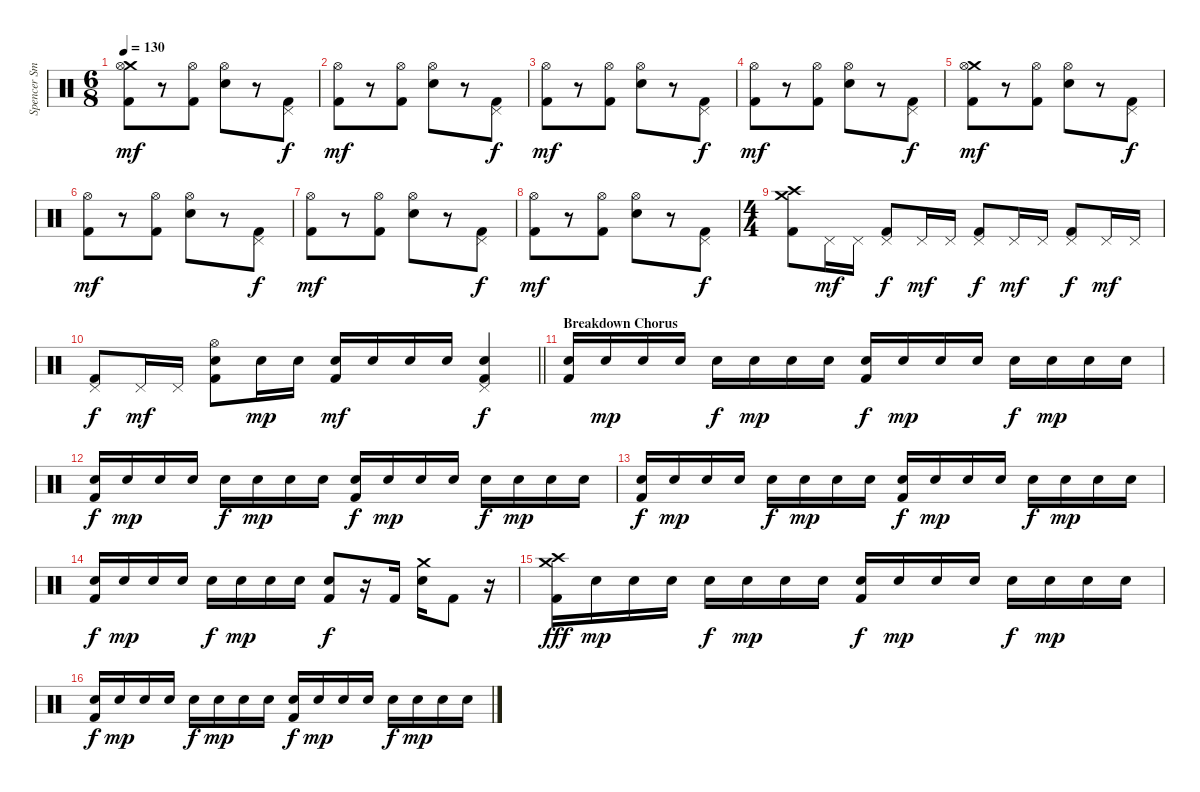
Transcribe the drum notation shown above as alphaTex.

\track ("Spencer Smith (Drums)" "Spencer Sm") {instrument percussion}
\staff {score}
\articulation defaults
\ts (6 8)
\tempo 130
\clef neutral
\ks c
("Crash medium (hit)" "Hi-Hat (open)" "Kick (hit) 2").8{dy mf} r.8 ("Hi-Hat (open)" "Kick (hit) 2").8 ("Hi-Hat (open)" "Electric Snare (hit)").8 r.8 ("Pedal Hi-Hat (hit)" "Kick (hit) 2").8{dy f} |
("Hi-Hat (open)" "Kick (hit) 2").8{dy mf} r.8 ("Hi-Hat (open)" "Kick (hit) 2").8 ("Hi-Hat (open)" "Electric Snare (hit)").8 r.8 ("Pedal Hi-Hat (hit)" "Kick (hit) 2").8{dy f} |
("Hi-Hat (open)" "Kick (hit) 2").8{dy mf} r.8 ("Hi-Hat (open)" "Kick (hit) 2").8 ("Hi-Hat (open)" "Electric Snare (hit)").8 r.8 ("Pedal Hi-Hat (hit)" "Kick (hit) 2").8{dy f} |
("Hi-Hat (open)" "Kick (hit) 2").8{dy mf} r.8 ("Hi-Hat (open)" "Kick (hit) 2").8 ("Hi-Hat (open)" "Electric Snare (hit)").8 r.8 ("Pedal Hi-Hat (hit)" "Kick (hit) 2").8{dy f} |
("Crash medium (hit)" "Hi-Hat (open)" "Kick (hit) 2").8{dy mf} r.8 ("Hi-Hat (open)" "Kick (hit) 2").8 ("Hi-Hat (open)" "Electric Snare (hit)").8 r.8 ("Pedal Hi-Hat (hit)" "Kick (hit) 2").8{dy f} |
("Hi-Hat (open)" "Kick (hit) 2").8{dy mf} r.8 ("Hi-Hat (open)" "Kick (hit) 2").8 ("Hi-Hat (open)" "Electric Snare (hit)").8 r.8 ("Pedal Hi-Hat (hit)" "Kick (hit) 2").8{dy f} |
("Hi-Hat (open)" "Kick (hit) 2").8{dy mf} r.8 ("Hi-Hat (open)" "Kick (hit) 2").8 ("Hi-Hat (open)" "Electric Snare (hit)").8 r.8 ("Pedal Hi-Hat (hit)" "Kick (hit) 2").8{dy f} |
("Hi-Hat (open)" "Kick (hit) 2").8{dy mf} r.8 ("Hi-Hat (open)" "Kick (hit) 2").8 ("Hi-Hat (open)" "Electric Snare (hit)").8 r.8 ("Pedal Hi-Hat (hit)" "Kick (hit) 2").8{dy f} |
\ts (4 4)
("Crash high (hit)" "Crash medium (hit)" "Kick (hit) 2").8 "Pedal Hi-Hat (hit)".16{dy mf} "Pedal Hi-Hat (hit)".16 ("Pedal Hi-Hat (hit)" "Kick (hit) 2").8{dy f} "Pedal Hi-Hat (hit)".16{dy mf} "Pedal Hi-Hat (hit)".16 ("Pedal Hi-Hat (hit)" "Kick (hit) 2").8{dy f} "Pedal Hi-Hat (hit)".16{dy mf} "Pedal Hi-Hat (hit)".16 ("Pedal Hi-Hat (hit)" "Kick (hit) 2").8{dy f} "Pedal Hi-Hat (hit)".16{dy mf} "Pedal Hi-Hat (hit)".16 |
\barLineRight lightlight
("Pedal Hi-Hat (hit)" "Kick (hit) 2").8{dy f} "Pedal Hi-Hat (hit)".16{dy mf} "Pedal Hi-Hat (hit)".16 ("Hi-Hat (open)" "Electric Snare (hit)" "Kick (hit) 2").8 "Electric Snare (hit)".16{dy mp} "Electric Snare (hit)".16 ("Electric Snare (hit)" "Kick (hit) 2").16{dy mf} "Electric Snare (hit)".16 "Electric Snare (hit)".16 "Electric Snare (hit)".16 ("Pedal Hi-Hat (hit)" "Electric Snare (hit)" "Kick (hit) 2").4{dy f} |
\section ("" "Breakdown Chorus")
("Electric Snare (hit)" "Kick (hit) 2").16{volume 8} "Electric Snare (hit)".16{dy mp} "Electric Snare (hit)".16 "Electric Snare (hit)".16 "Electric Snare (hit)".16{dy f} "Electric Snare (hit)".16{dy mp} "Electric Snare (hit)".16 "Electric Snare (hit)".16 ("Electric Snare (hit)" "Kick (hit) 2").16{dy f} "Electric Snare (hit)".16{dy mp} "Electric Snare (hit)".16 "Electric Snare (hit)".16 "Electric Snare (hit)".16{dy f} "Electric Snare (hit)".16{dy mp} "Electric Snare (hit)".16 "Electric Snare (hit)".16 |
("Electric Snare (hit)" "Kick (hit) 2").16{dy f} "Electric Snare (hit)".16{dy mp} "Electric Snare (hit)".16 "Electric Snare (hit)".16 "Electric Snare (hit)".16{dy f} "Electric Snare (hit)".16{dy mp} "Electric Snare (hit)".16 "Electric Snare (hit)".16 ("Electric Snare (hit)" "Kick (hit) 2").16{dy f} "Electric Snare (hit)".16{dy mp} "Electric Snare (hit)".16 "Electric Snare (hit)".16 "Electric Snare (hit)".16{dy f} "Electric Snare (hit)".16{dy mp} "Electric Snare (hit)".16 "Electric Snare (hit)".16 |
("Electric Snare (hit)" "Kick (hit) 2").16{dy f} "Electric Snare (hit)".16{dy mp} "Electric Snare (hit)".16 "Electric Snare (hit)".16 "Electric Snare (hit)".16{dy f} "Electric Snare (hit)".16{dy mp} "Electric Snare (hit)".16 "Electric Snare (hit)".16 ("Electric Snare (hit)" "Kick (hit) 2").16{dy f} "Electric Snare (hit)".16{dy mp} "Electric Snare (hit)".16 "Electric Snare (hit)".16 "Electric Snare (hit)".16{dy f} "Electric Snare (hit)".16{dy mp} "Electric Snare (hit)".16 "Electric Snare (hit)".16 |
("Electric Snare (hit)" "Kick (hit) 2").16{dy f} "Electric Snare (hit)".16{dy mp} "Electric Snare (hit)".16 "Electric Snare (hit)".16 "Electric Snare (hit)".16{dy f} "Electric Snare (hit)".16{dy mp} "Electric Snare (hit)".16 "Electric Snare (hit)".16 ("Electric Snare (hit)" "Kick (hit) 2").8{dy f} r.16 "Kick (hit) 2".16 ("Crash medium (hit)" "Electric Snare (hit)").16{volume 12} "Kick (hit) 2".8 r.16 |
("Crash medium (hit)" "Crash high (hit)" "Kick (hit) 2").16{dy fff volume 8} "Electric Snare (hit)".16{dy mp} "Electric Snare (hit)".16 "Electric Snare (hit)".16 "Electric Snare (hit)".16{dy f} "Electric Snare (hit)".16{dy mp} "Electric Snare (hit)".16 "Electric Snare (hit)".16 ("Electric Snare (hit)" "Kick (hit) 2").16{dy f} "Electric Snare (hit)".16{dy mp} "Electric Snare (hit)".16 "Electric Snare (hit)".16 "Electric Snare (hit)".16{dy f} "Electric Snare (hit)".16{dy mp} "Electric Snare (hit)".16 "Electric Snare (hit)".16 |
("Electric Snare (hit)" "Kick (hit) 2").16{dy f} "Electric Snare (hit)".16{dy mp} "Electric Snare (hit)".16 "Electric Snare (hit)".16 "Electric Snare (hit)".16{dy f} "Electric Snare (hit)".16{dy mp} "Electric Snare (hit)".16 "Electric Snare (hit)".16 ("Electric Snare (hit)" "Kick (hit) 2").16{dy f} "Electric Snare (hit)".16{dy mp} "Electric Snare (hit)".16 "Electric Snare (hit)".16 "Electric Snare (hit)".16{dy f} "Electric Snare (hit)".16{dy mp} "Electric Snare (hit)".16 "Electric Snare (hit)".16
